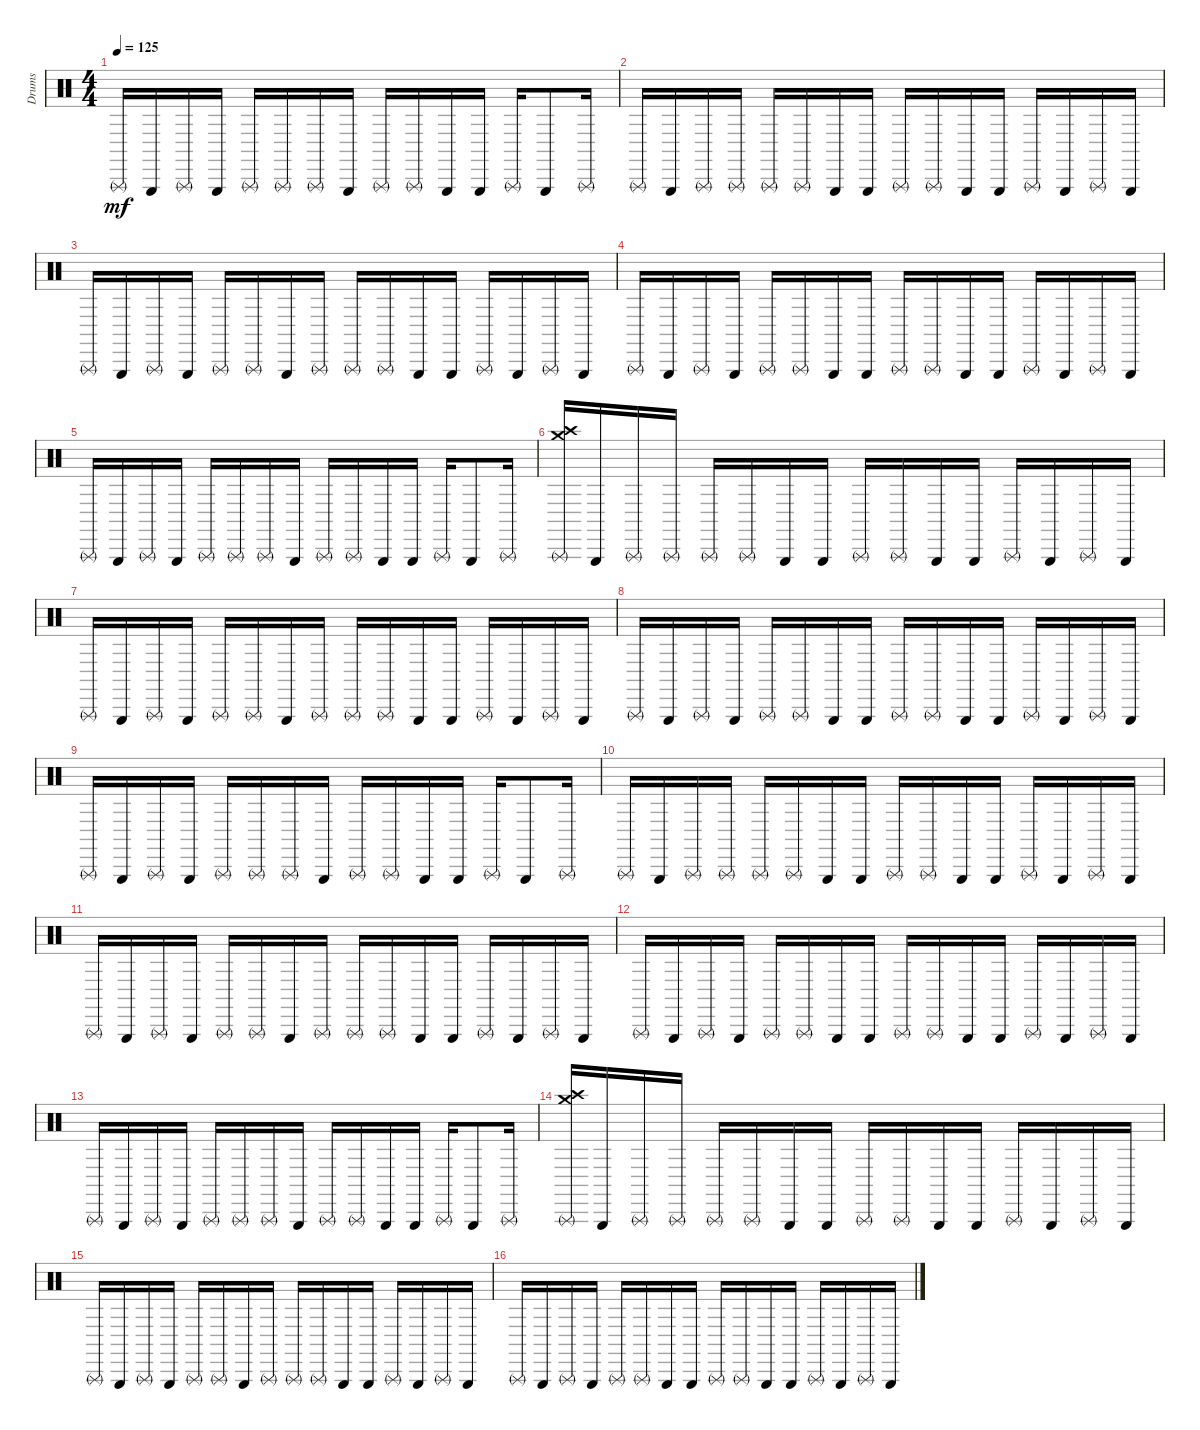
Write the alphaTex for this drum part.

\track ("Drums" "Drums") {instrument percussion}
\staff {score}
\articulation defaults
\ts (4 4)
\tempo 125
\clef neutral
\ks c "Triangle (rnute)".16{dy mf} "Triangle (hit)".16 "Triangle (rnute)".16 "Triangle (hit)".16 "Triangle (rnute)".16 "Triangle (rnute)".16 "Triangle (rnute)".16 "Triangle (hit)".16 "Triangle (rnute)".16 "Triangle (rnute)".16 "Triangle (hit)".16 "Triangle (hit)".16 "Triangle (rnute)".16 "Triangle (hit)".8 "Triangle (rnute)".16
|
"Triangle (rnute)".16 "Triangle (hit)".16 "Triangle (rnute)".16 "Triangle (rnute)".16 "Triangle (rnute)".16 "Triangle (rnute)".16 "Triangle (hit)".16 "Triangle (hit)".16 "Triangle (rnute)".16 "Triangle (rnute)".16 "Triangle (hit)".16 "Triangle (hit)".16 "Triangle (rnute)".16 "Triangle (hit)".16 "Triangle (rnute)".16 "Triangle (hit)".16 |
"Triangle (rnute)".16 "Triangle (hit)".16 "Triangle (rnute)".16 "Triangle (hit)".16 "Triangle (rnute)".16 "Triangle (rnute)".16 "Triangle (hit)".16 "Triangle (rnute)".16 "Triangle (rnute)".16 "Triangle (rnute)".16 "Triangle (hit)".16 "Triangle (hit)".16 "Triangle (rnute)".16 "Triangle (hit)".16 "Triangle (rnute)".16 "Triangle (hit)".16 |
"Triangle (rnute)".16 "Triangle (hit)".16 "Triangle (rnute)".16 "Triangle (hit)".16 "Triangle (rnute)".16 "Triangle (rnute)".16 "Triangle (hit)".16 "Triangle (hit)".16 "Triangle (rnute)".16 "Triangle (rnute)".16 "Triangle (hit)".16 "Triangle (hit)".16 "Triangle (rnute)".16 "Triangle (hit)".16 "Triangle (rnute)".16 "Triangle (hit)".16 |
"Triangle (rnute)".16 "Triangle (hit)".16 "Triangle (rnute)".16 "Triangle (hit)".16 "Triangle (rnute)".16 "Triangle (rnute)".16 "Triangle (rnute)".16 "Triangle (hit)".16 "Triangle (rnute)".16 "Triangle (rnute)".16 "Triangle (hit)".16 "Triangle (hit)".16 "Triangle (rnute)".16 "Triangle (hit)".8 "Triangle (rnute)".16 |
("Triangle (rnute)" "Crash high (hit)" "Crash medium (hit)").16 "Triangle (hit)".16 "Triangle (rnute)".16 "Triangle (rnute)".16 "Triangle (rnute)".16 "Triangle (rnute)".16 "Triangle (hit)".16 "Triangle (hit)".16 "Triangle (rnute)".16 "Triangle (rnute)".16 "Triangle (hit)".16 "Triangle (hit)".16 "Triangle (rnute)".16 "Triangle (hit)".16 "Triangle (rnute)".16 "Triangle (hit)".16 |
"Triangle (rnute)".16 "Triangle (hit)".16 "Triangle (rnute)".16 "Triangle (hit)".16 "Triangle (rnute)".16 "Triangle (rnute)".16 "Triangle (hit)".16 "Triangle (rnute)".16 "Triangle (rnute)".16 "Triangle (rnute)".16 "Triangle (hit)".16 "Triangle (hit)".16 "Triangle (rnute)".16 "Triangle (hit)".16 "Triangle (rnute)".16 "Triangle (hit)".16 |
"Triangle (rnute)".16 "Triangle (hit)".16 "Triangle (rnute)".16 "Triangle (hit)".16 "Triangle (rnute)".16 "Triangle (rnute)".16 "Triangle (hit)".16 "Triangle (hit)".16 "Triangle (rnute)".16 "Triangle (rnute)".16 "Triangle (hit)".16 "Triangle (hit)".16 "Triangle (rnute)".16 "Triangle (hit)".16 "Triangle (rnute)".16 "Triangle (hit)".16 |
"Triangle (rnute)".16 "Triangle (hit)".16 "Triangle (rnute)".16 "Triangle (hit)".16 "Triangle (rnute)".16 "Triangle (rnute)".16 "Triangle (rnute)".16 "Triangle (hit)".16 "Triangle (rnute)".16 "Triangle (rnute)".16 "Triangle (hit)".16 "Triangle (hit)".16 "Triangle (rnute)".16 "Triangle (hit)".8 "Triangle (rnute)".16 |
"Triangle (rnute)".16 "Triangle (hit)".16 "Triangle (rnute)".16 "Triangle (rnute)".16 "Triangle (rnute)".16 "Triangle (rnute)".16 "Triangle (hit)".16 "Triangle (hit)".16 "Triangle (rnute)".16 "Triangle (rnute)".16 "Triangle (hit)".16 "Triangle (hit)".16 "Triangle (rnute)".16 "Triangle (hit)".16 "Triangle (rnute)".16 "Triangle (hit)".16 |
"Triangle (rnute)".16 "Triangle (hit)".16 "Triangle (rnute)".16 "Triangle (hit)".16 "Triangle (rnute)".16 "Triangle (rnute)".16 "Triangle (hit)".16 "Triangle (rnute)".16 "Triangle (rnute)".16 "Triangle (rnute)".16 "Triangle (hit)".16 "Triangle (hit)".16 "Triangle (rnute)".16 "Triangle (hit)".16 "Triangle (rnute)".16 "Triangle (hit)".16 |
"Triangle (rnute)".16 "Triangle (hit)".16 "Triangle (rnute)".16 "Triangle (hit)".16 "Triangle (rnute)".16 "Triangle (rnute)".16 "Triangle (hit)".16 "Triangle (hit)".16 "Triangle (rnute)".16 "Triangle (rnute)".16 "Triangle (hit)".16 "Triangle (hit)".16 "Triangle (rnute)".16 "Triangle (hit)".16 "Triangle (rnute)".16 "Triangle (hit)".16 |
"Triangle (rnute)".16 "Triangle (hit)".16 "Triangle (rnute)".16 "Triangle (hit)".16 "Triangle (rnute)".16 "Triangle (rnute)".16 "Triangle (rnute)".16 "Triangle (hit)".16 "Triangle (rnute)".16 "Triangle (rnute)".16 "Triangle (hit)".16 "Triangle (hit)".16 "Triangle (rnute)".16 "Triangle (hit)".8 "Triangle (rnute)".16 |
("Triangle (rnute)" "Crash high (hit)" "Crash medium (hit)").16 "Triangle (hit)".16 "Triangle (rnute)".16 "Triangle (rnute)".16 "Triangle (rnute)".16 "Triangle (rnute)".16 "Triangle (hit)".16 "Triangle (hit)".16 "Triangle (rnute)".16 "Triangle (rnute)".16 "Triangle (hit)".16 "Triangle (hit)".16 "Triangle (rnute)".16 "Triangle (hit)".16 "Triangle (rnute)".16 "Triangle (hit)".16 |
"Triangle (rnute)".16 "Triangle (hit)".16 "Triangle (rnute)".16 "Triangle (hit)".16 "Triangle (rnute)".16 "Triangle (rnute)".16 "Triangle (hit)".16 "Triangle (rnute)".16 "Triangle (rnute)".16 "Triangle (rnute)".16 "Triangle (hit)".16 "Triangle (hit)".16 "Triangle (rnute)".16 "Triangle (hit)".16 "Triangle (rnute)".16 "Triangle (hit)".16 |
"Triangle (rnute)".16 "Triangle (hit)".16 "Triangle (rnute)".16 "Triangle (hit)".16 "Triangle (rnute)".16 "Triangle (rnute)".16 "Triangle (hit)".16 "Triangle (hit)".16 "Triangle (rnute)".16 "Triangle (rnute)".16 "Triangle (hit)".16 "Triangle (hit)".16 "Triangle (rnute)".16 "Triangle (hit)".16 "Triangle (rnute)".16 "Triangle (hit)".16
